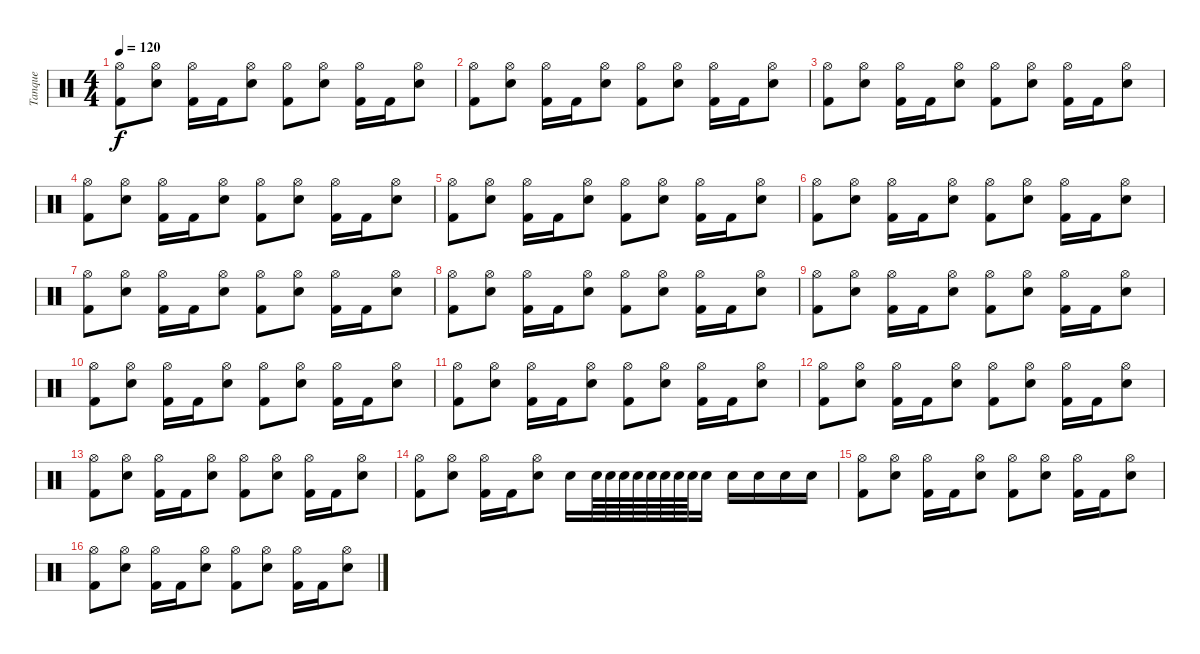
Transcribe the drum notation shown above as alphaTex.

\track ("Tanque" "Tanque") {instrument percussion}
\staff {score}
\articulation defaults
\ts (4 4)
\tempo 120
\clef neutral
\ks c
("Kick (hit) 2" "Hi-Hat (open)").8{dy f} ("Snare (hit) 2" "Hi-Hat (open)").8 ("Kick (hit) 2" "Hi-Hat (open)").16 "Kick (hit) 2".16 ("Snare (hit) 2" "Hi-Hat (open)").8 ("Kick (hit) 2" "Hi-Hat (open)").8 ("Snare (hit) 2" "Hi-Hat (open)").8 ("Kick (hit) 2" "Hi-Hat (open)").16 "Kick (hit) 2".16 ("Snare (hit) 2" "Hi-Hat (open)").8 |
("Kick (hit) 2" "Hi-Hat (open)").8 ("Snare (hit) 2" "Hi-Hat (open)").8 ("Kick (hit) 2" "Hi-Hat (open)").16 "Kick (hit) 2".16 ("Snare (hit) 2" "Hi-Hat (open)").8 ("Kick (hit) 2" "Hi-Hat (open)").8 ("Snare (hit) 2" "Hi-Hat (open)").8 ("Kick (hit) 2" "Hi-Hat (open)").16 "Kick (hit) 2".16 ("Snare (hit) 2" "Hi-Hat (open)").8 |
("Kick (hit) 2" "Hi-Hat (open)").8 ("Snare (hit) 2" "Hi-Hat (open)").8 ("Kick (hit) 2" "Hi-Hat (open)").16 "Kick (hit) 2".16 ("Snare (hit) 2" "Hi-Hat (open)").8 ("Kick (hit) 2" "Hi-Hat (open)").8 ("Snare (hit) 2" "Hi-Hat (open)").8 ("Kick (hit) 2" "Hi-Hat (open)").16 "Kick (hit) 2".16 ("Snare (hit) 2" "Hi-Hat (open)").8 |
("Kick (hit) 2" "Hi-Hat (open)").8 ("Snare (hit) 2" "Hi-Hat (open)").8 ("Kick (hit) 2" "Hi-Hat (open)").16 "Kick (hit) 2".16 ("Snare (hit) 2" "Hi-Hat (open)").8 ("Kick (hit) 2" "Hi-Hat (open)").8 ("Snare (hit) 2" "Hi-Hat (open)").8 ("Kick (hit) 2" "Hi-Hat (open)").16 "Kick (hit) 2".16 ("Snare (hit) 2" "Hi-Hat (open)").8 |
("Kick (hit) 2" "Hi-Hat (open)").8 ("Snare (hit) 2" "Hi-Hat (open)").8 ("Kick (hit) 2" "Hi-Hat (open)").16 "Kick (hit) 2".16 ("Snare (hit) 2" "Hi-Hat (open)").8 ("Kick (hit) 2" "Hi-Hat (open)").8 ("Snare (hit) 2" "Hi-Hat (open)").8 ("Kick (hit) 2" "Hi-Hat (open)").16 "Kick (hit) 2".16 ("Snare (hit) 2" "Hi-Hat (open)").8 |
("Kick (hit) 2" "Hi-Hat (open)").8 ("Snare (hit) 2" "Hi-Hat (open)").8 ("Kick (hit) 2" "Hi-Hat (open)").16 "Kick (hit) 2".16 ("Snare (hit) 2" "Hi-Hat (open)").8 ("Kick (hit) 2" "Hi-Hat (open)").8 ("Snare (hit) 2" "Hi-Hat (open)").8 ("Kick (hit) 2" "Hi-Hat (open)").16 "Kick (hit) 2".16 ("Snare (hit) 2" "Hi-Hat (open)").8 |
("Kick (hit) 2" "Hi-Hat (open)").8 ("Snare (hit) 2" "Hi-Hat (open)").8 ("Kick (hit) 2" "Hi-Hat (open)").16 "Kick (hit) 2".16 ("Snare (hit) 2" "Hi-Hat (open)").8 ("Kick (hit) 2" "Hi-Hat (open)").8 ("Snare (hit) 2" "Hi-Hat (open)").8 ("Kick (hit) 2" "Hi-Hat (open)").16 "Kick (hit) 2".16 ("Snare (hit) 2" "Hi-Hat (open)").8 |
("Kick (hit) 2" "Hi-Hat (open)").8 ("Snare (hit) 2" "Hi-Hat (open)").8 ("Kick (hit) 2" "Hi-Hat (open)").16 "Kick (hit) 2".16 ("Snare (hit) 2" "Hi-Hat (open)").8 ("Kick (hit) 2" "Hi-Hat (open)").8 ("Snare (hit) 2" "Hi-Hat (open)").8 ("Kick (hit) 2" "Hi-Hat (open)").16 "Kick (hit) 2".16 ("Snare (hit) 2" "Hi-Hat (open)").8 |
("Kick (hit) 2" "Hi-Hat (open)").8 ("Snare (hit) 2" "Hi-Hat (open)").8 ("Kick (hit) 2" "Hi-Hat (open)").16 "Kick (hit) 2".16 ("Snare (hit) 2" "Hi-Hat (open)").8 ("Kick (hit) 2" "Hi-Hat (open)").8 ("Snare (hit) 2" "Hi-Hat (open)").8 ("Kick (hit) 2" "Hi-Hat (open)").16 "Kick (hit) 2".16 ("Snare (hit) 2" "Hi-Hat (open)").8 |
("Kick (hit) 2" "Hi-Hat (open)").8 ("Snare (hit) 2" "Hi-Hat (open)").8 ("Kick (hit) 2" "Hi-Hat (open)").16 "Kick (hit) 2".16 ("Snare (hit) 2" "Hi-Hat (open)").8 ("Kick (hit) 2" "Hi-Hat (open)").8 ("Snare (hit) 2" "Hi-Hat (open)").8 ("Kick (hit) 2" "Hi-Hat (open)").16 "Kick (hit) 2".16 ("Snare (hit) 2" "Hi-Hat (open)").8 |
("Kick (hit) 2" "Hi-Hat (open)").8 ("Snare (hit) 2" "Hi-Hat (open)").8 ("Kick (hit) 2" "Hi-Hat (open)").16 "Kick (hit) 2".16 ("Snare (hit) 2" "Hi-Hat (open)").8 ("Kick (hit) 2" "Hi-Hat (open)").8 ("Snare (hit) 2" "Hi-Hat (open)").8 ("Kick (hit) 2" "Hi-Hat (open)").16 "Kick (hit) 2".16 ("Snare (hit) 2" "Hi-Hat (open)").8 |
("Kick (hit) 2" "Hi-Hat (open)").8 ("Snare (hit) 2" "Hi-Hat (open)").8 ("Kick (hit) 2" "Hi-Hat (open)").16 "Kick (hit) 2".16 ("Snare (hit) 2" "Hi-Hat (open)").8 ("Kick (hit) 2" "Hi-Hat (open)").8 ("Snare (hit) 2" "Hi-Hat (open)").8 ("Kick (hit) 2" "Hi-Hat (open)").16 "Kick (hit) 2".16 ("Snare (hit) 2" "Hi-Hat (open)").8 |
("Kick (hit) 2" "Hi-Hat (open)").8 ("Snare (hit) 2" "Hi-Hat (open)").8 ("Kick (hit) 2" "Hi-Hat (open)").16 "Kick (hit) 2".16 ("Snare (hit) 2" "Hi-Hat (open)").8 ("Kick (hit) 2" "Hi-Hat (open)").8 ("Snare (hit) 2" "Hi-Hat (open)").8 ("Kick (hit) 2" "Hi-Hat (open)").16 "Kick (hit) 2".16 ("Snare (hit) 2" "Hi-Hat (open)").8 |
("Kick (hit) 2" "Hi-Hat (open)").8 ("Snare (hit) 2" "Hi-Hat (open)").8 ("Kick (hit) 2" "Hi-Hat (open)").16 "Kick (hit) 2".16 ("Snare (hit) 2" "Hi-Hat (open)").8 "Snare (hit) 2".16 "Snare (hit) 2".64 "Snare (hit) 2".64 "Snare (hit) 2".64 "Snare (hit) 2".64 "Snare (hit) 2".64 "Snare (hit) 2".64 "Snare (hit) 2".64 "Snare (hit) 2".64 "Snare (hit) 2".16 "Snare (hit) 2".16 "Snare (hit) 2".16 "Snare (hit) 2".16 "Snare (hit) 2".16 |
("Kick (hit) 2" "Hi-Hat (open)").8 ("Snare (hit) 2" "Hi-Hat (open)").8 ("Kick (hit) 2" "Hi-Hat (open)").16 "Kick (hit) 2".16 ("Snare (hit) 2" "Hi-Hat (open)").8 ("Kick (hit) 2" "Hi-Hat (open)").8 ("Snare (hit) 2" "Hi-Hat (open)").8 ("Kick (hit) 2" "Hi-Hat (open)").16 "Kick (hit) 2".16 ("Snare (hit) 2" "Hi-Hat (open)").8 |
("Kick (hit) 2" "Hi-Hat (open)").8 ("Snare (hit) 2" "Hi-Hat (open)").8 ("Kick (hit) 2" "Hi-Hat (open)").16 "Kick (hit) 2".16 ("Snare (hit) 2" "Hi-Hat (open)").8 ("Kick (hit) 2" "Hi-Hat (open)").8 ("Snare (hit) 2" "Hi-Hat (open)").8 ("Kick (hit) 2" "Hi-Hat (open)").16 "Kick (hit) 2".16 ("Snare (hit) 2" "Hi-Hat (open)").8
